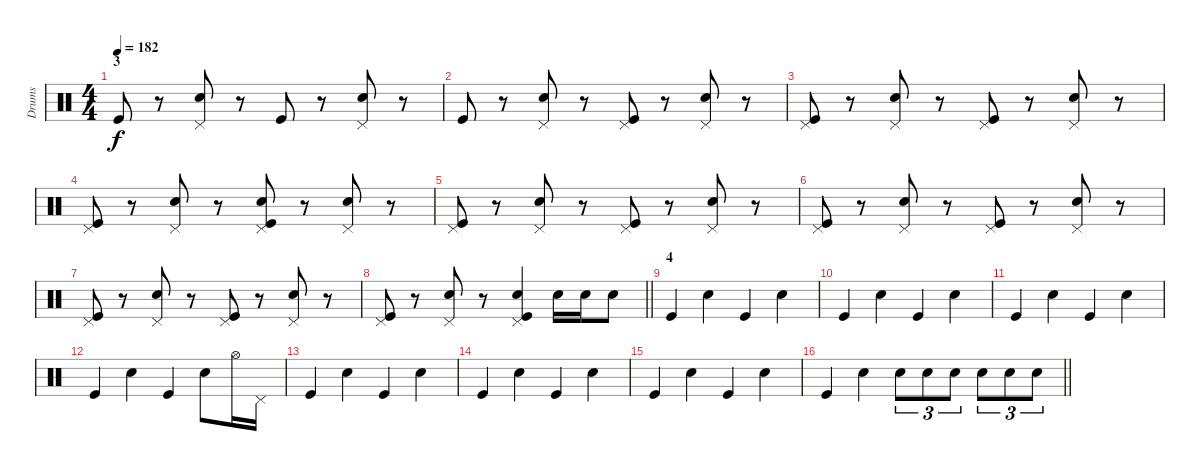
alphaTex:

\track ("Drums" "Drums") {instrument percussion}
\staff {score}
\articulation defaults
\ts (4 4)
\section ("" "3")
\tempo 182
\clef neutral
\ks c "Kick (hit)".8{dy f}
r.8 ("Pedal Hi-Hat (hit)" "Electric Snare (hit)").8 r.8 "Kick (hit)".8 r.8 ("Pedal Hi-Hat (hit)" "Electric Snare (hit)").8 r.8 |
"Kick (hit)".8 r.8 ("Pedal Hi-Hat (hit)" "Electric Snare (hit)").8 r.8 ("Pedal Hi-Hat (hit)" "Kick (hit)").8 r.8 ("Pedal Hi-Hat (hit)" "Electric Snare (hit)").8 r.8 |
("Pedal Hi-Hat (hit)" "Kick (hit)").8 r.8 ("Pedal Hi-Hat (hit)" "Electric Snare (hit)").8 r.8 ("Pedal Hi-Hat (hit)" "Kick (hit)").8 r.8 ("Pedal Hi-Hat (hit)" "Electric Snare (hit)").8 r.8 |
("Pedal Hi-Hat (hit)" "Kick (hit)").8 r.8 ("Pedal Hi-Hat (hit)" "Electric Snare (hit)").8 r.8 ("Pedal Hi-Hat (hit)" "Electric Snare (hit)" "Kick (hit)").8 r.8 ("Pedal Hi-Hat (hit)" "Electric Snare (hit)").8 r.8 |
("Pedal Hi-Hat (hit)" "Kick (hit)").8 r.8 ("Pedal Hi-Hat (hit)" "Electric Snare (hit)").8 r.8 ("Pedal Hi-Hat (hit)" "Kick (hit)").8 r.8 ("Pedal Hi-Hat (hit)" "Electric Snare (hit)").8 r.8 |
("Pedal Hi-Hat (hit)" "Kick (hit)").8 r.8 ("Pedal Hi-Hat (hit)" "Electric Snare (hit)").8 r.8 ("Pedal Hi-Hat (hit)" "Kick (hit)").8 r.8 ("Pedal Hi-Hat (hit)" "Electric Snare (hit)").8 r.8 |
("Pedal Hi-Hat (hit)" "Kick (hit)").8 r.8 ("Pedal Hi-Hat (hit)" "Electric Snare (hit)").8 r.8 ("Pedal Hi-Hat (hit)" "Kick (hit)").8 r.8 ("Pedal Hi-Hat (hit)" "Electric Snare (hit)").8 r.8 |
\barLineRight lightlight
("Pedal Hi-Hat (hit)" "Kick (hit)").8 r.8 ("Pedal Hi-Hat (hit)" "Electric Snare (hit)").8 r.8 ("Pedal Hi-Hat (hit)" "Electric Snare (hit)" "Kick (hit)").4 "Electric Snare (hit)".16 "Electric Snare (hit)".16 "Electric Snare (hit)".8 |
\section ("" "4")
"Kick (hit)".4 "Electric Snare (hit)".4 "Kick (hit)".4 "Electric Snare (hit)".4 |
"Kick (hit)".4 "Electric Snare (hit)".4 "Kick (hit)".4 "Electric Snare (hit)".4 |
"Kick (hit)".4 "Electric Snare (hit)".4 "Kick (hit)".4 "Electric Snare (hit)".4 |
"Kick (hit)".4 "Electric Snare (hit)".4 "Kick (hit)".4 "Electric Snare (hit)".8 "Hi-Hat (open)".16 "Pedal Hi-Hat (hit)".16 |
"Kick (hit)".4 "Electric Snare (hit)".4 "Kick (hit)".4 "Electric Snare (hit)".4 |
"Kick (hit)".4 "Electric Snare (hit)".4 "Kick (hit)".4 "Electric Snare (hit)".4 |
"Kick (hit)".4 "Electric Snare (hit)".4 "Kick (hit)".4 "Electric Snare (hit)".4 |
\barLineRight lightlight "Kick (hit)".4 "Electric Snare (hit)".4 "Electric Snare (hit)".8{tu (3 2)} "Electric Snare (hit)".8{tu (3 2)} "Electric Snare (hit)".8{tu (3 2)} "Electric Snare (hit)".8{tu (3 2)} "Electric Snare (hit)".8{tu (3 2)} "Electric Snare (hit)".8{tu (3 2)}
